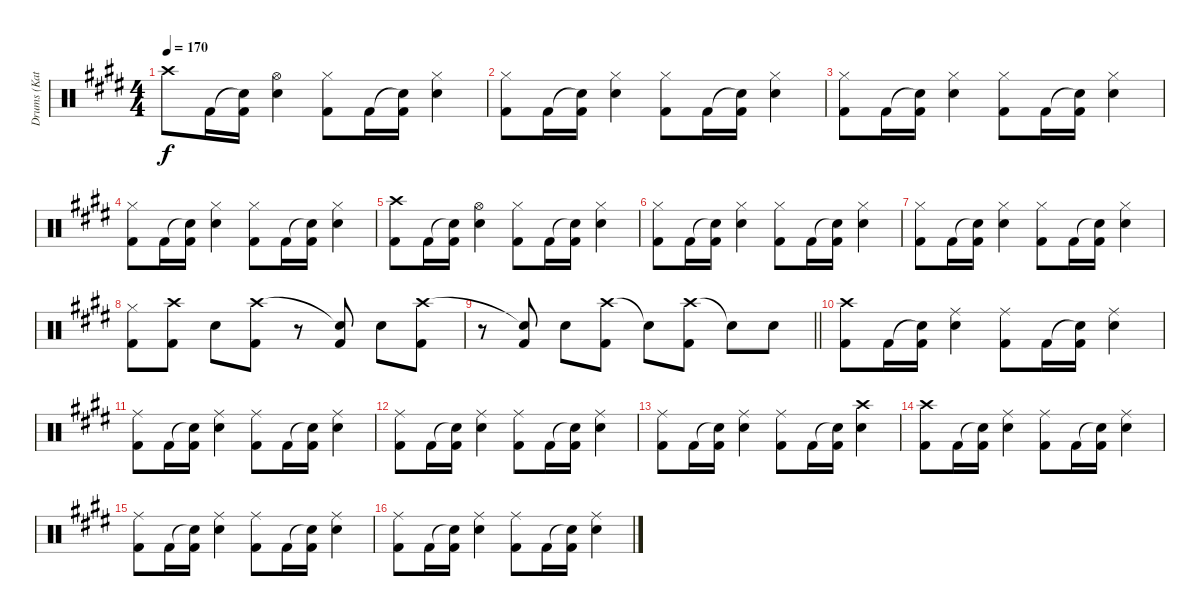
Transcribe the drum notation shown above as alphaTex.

\track ("Drums (Katsuji)" "Drums (Kat") {instrument percussion}
\staff {score}
\articulation defaults
\ts (4 4)
\tempo 170
\clef neutral
\ks e "Crash high (hit)".8{dy f} "Kick (hit) 2".16
("Snare (hit)"{t} "Kick (hit) 2").16 ("Hi-Hat (open)" "Snare (hit) 2").4 ("Hi-Hat (closed)" "Kick (hit) 2").8 "Kick (hit) 2".16 ("Snare (hit)"{t} "Kick (hit) 2").16 ("Hi-Hat (closed)" "Snare (hit) 2").4 |
("Hi-Hat (closed)" "Kick (hit) 2").8 "Kick (hit) 2".16 ("Snare (hit)"{t} "Kick (hit) 2").16 ("Hi-Hat (closed)" "Snare (hit) 2").4 ("Hi-Hat (closed)" "Kick (hit) 2").8 "Kick (hit) 2".16 ("Snare (hit)"{t} "Kick (hit) 2").16 ("Hi-Hat (closed)" "Snare (hit) 2").4 |
("Hi-Hat (closed)" "Kick (hit) 2").8 "Kick (hit) 2".16 ("Snare (hit)"{t} "Kick (hit) 2").16 ("Hi-Hat (closed)" "Snare (hit) 2").4 ("Hi-Hat (closed)" "Kick (hit) 2").8 "Kick (hit) 2".16 ("Snare (hit)"{t} "Kick (hit) 2").16 ("Hi-Hat (closed)" "Snare (hit) 2").4 |
("Hi-Hat (closed)" "Kick (hit) 2").8 "Kick (hit) 2".16 ("Snare (hit)"{t} "Kick (hit) 2").16 ("Hi-Hat (closed)" "Snare (hit) 2").4 ("Hi-Hat (closed)" "Kick (hit) 2").8 "Kick (hit) 2".16 ("Snare (hit)"{t} "Kick (hit) 2").16 ("Hi-Hat (closed)" "Snare (hit) 2").4 |
("Crash high (hit)" "Kick (hit) 2").8 "Kick (hit) 2".16 ("Snare (hit)"{t} "Kick (hit) 2").16 ("Hi-Hat (open)" "Snare (hit) 2").4 ("Hi-Hat (closed)" "Kick (hit) 2").8 "Kick (hit) 2".16 ("Snare (hit)"{t} "Kick (hit) 2").16 ("Hi-Hat (closed)" "Snare (hit) 2").4 |
("Hi-Hat (closed)" "Kick (hit) 2").8 "Kick (hit) 2".16 ("Snare (hit)"{t} "Kick (hit) 2").16 ("Hi-Hat (closed)" "Snare (hit) 2").4 ("Hi-Hat (closed)" "Kick (hit) 2").8 "Kick (hit) 2".16 ("Snare (hit)"{t} "Kick (hit) 2").16 ("Hi-Hat (closed)" "Snare (hit) 2").4 |
("Hi-Hat (closed)" "Kick (hit) 2").8 "Kick (hit) 2".16 ("Snare (hit)"{t} "Kick (hit) 2").16 ("Hi-Hat (closed)" "Snare (hit) 2").4 ("Hi-Hat (closed)" "Kick (hit) 2").8 "Kick (hit) 2".16 ("Snare (hit)"{t} "Kick (hit) 2").16 ("Hi-Hat (closed)" "Snare (hit) 2").4 |
("Hi-Hat (closed)" "Kick (hit) 2").8 ("Crash high (hit)" "Kick (hit) 2").8 "Snare (hit) 2".8 ("Crash high (hit)" "Kick (hit) 2").8 r.8 ("Snare (hit)"{t} "Kick (hit) 2").8 "Snare (hit) 2".8 ("Crash high (hit)" "Kick (hit) 2").8 |
\barLineRight lightlight
r.8 ("Snare (hit)"{t} "Kick (hit) 2").8 "Snare (hit) 2".8 ("Crash high (hit)" "Kick (hit) 2").8 "Snare (hit)"{t}.8 ("Crash high (hit)" "Kick (hit) 2").8 "Snare (hit)"{t}.8 "Snare (hit) 2".8 |
("Crash high (hit)" "Kick (hit) 2").8 "Kick (hit) 2".16 ("Snare (hit)"{t} "Kick (hit) 2").16 ("Ride (middle)" "Snare (hit) 2").4 ("Ride (middle)" "Kick (hit) 2").8 "Kick (hit) 2".16 ("Snare (hit)"{t} "Kick (hit) 2").16 ("Ride (middle)" "Snare (hit) 2").4 |
("Ride (middle)" "Kick (hit) 2").8 "Kick (hit) 2".16 ("Snare (hit)"{t} "Kick (hit) 2").16 ("Ride (middle)" "Snare (hit) 2").4 ("Ride (middle)" "Kick (hit) 2").8 "Kick (hit) 2".16 ("Snare (hit)"{t} "Kick (hit) 2").16 ("Ride (middle)" "Snare (hit) 2").4 |
("Ride (middle)" "Kick (hit) 2").8 "Kick (hit) 2".16 ("Snare (hit)"{t} "Kick (hit) 2").16 ("Ride (middle)" "Snare (hit) 2").4 ("Ride (middle)" "Kick (hit) 2").8 "Kick (hit) 2".16 ("Snare (hit)"{t} "Kick (hit) 2").16 ("Ride (middle)" "Snare (hit) 2").4 |
("Ride (middle)" "Kick (hit) 2").8 "Kick (hit) 2".16 ("Snare (hit)"{t} "Kick (hit) 2").16 ("Ride (middle)" "Snare (hit) 2").4 ("Ride (middle)" "Kick (hit) 2").8 "Kick (hit) 2".16 ("Snare (hit)"{t} "Kick (hit) 2").16 ("Crash high (hit)" "Snare (hit) 2").4 |
("Crash high (hit)" "Kick (hit) 2").8 "Kick (hit) 2".16 ("Snare (hit)"{t} "Kick (hit) 2").16 ("Ride (middle)" "Snare (hit) 2").4 ("Ride (middle)" "Kick (hit) 2").8 "Kick (hit) 2".16 ("Snare (hit)"{t} "Kick (hit) 2").16 ("Ride (middle)" "Snare (hit) 2").4 |
("Ride (middle)" "Kick (hit) 2").8 "Kick (hit) 2".16 ("Snare (hit)"{t} "Kick (hit) 2").16 ("Ride (middle)" "Snare (hit) 2").4 ("Ride (middle)" "Kick (hit) 2").8 "Kick (hit) 2".16 ("Snare (hit)"{t} "Kick (hit) 2").16 ("Ride (middle)" "Snare (hit) 2").4 |
("Ride (middle)" "Kick (hit) 2").8 "Kick (hit) 2".16 ("Snare (hit)"{t} "Kick (hit) 2").16 ("Ride (middle)" "Snare (hit) 2").4 ("Ride (middle)" "Kick (hit) 2").8 "Kick (hit) 2".16 ("Snare (hit)"{t} "Kick (hit) 2").16 ("Ride (middle)" "Snare (hit) 2").4
